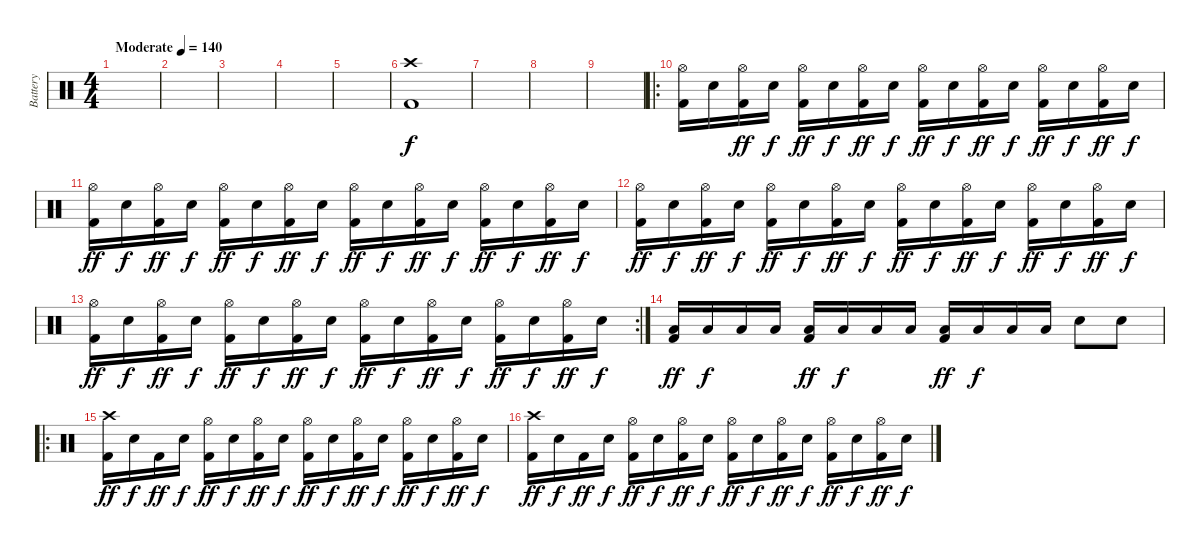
\track ("Battery" "Battery") {instrument percussion}
\staff {score}
\articulation defaults
\ts (4 4)
\tempo (140 "Moderate")
\clef neutral
\ks c
|
|
|
|
|
("Crash high (hit)" "Kick (hit) 2").1 |
|
|
|
\ro
("Hi-Hat (open)" "Kick (hit) 2").16 "Snare (hit) 2".16{dy f} ("Hi-Hat (open)" "Kick (hit) 2").16{dy ff} "Snare (hit) 2".16{dy f} ("Hi-Hat (open)" "Kick (hit) 2").16{dy ff} "Snare (hit) 2".16{dy f} ("Hi-Hat (open)" "Kick (hit) 2").16{dy ff} "Snare (hit) 2".16{dy f} ("Hi-Hat (open)" "Kick (hit) 2").16{dy ff} "Snare (hit) 2".16{dy f} ("Hi-Hat (open)" "Kick (hit) 2").16{dy ff} "Snare (hit) 2".16{dy f} ("Hi-Hat (open)" "Kick (hit) 2").16{dy ff} "Snare (hit) 2".16{dy f} ("Hi-Hat (open)" "Kick (hit) 2").16{dy ff} "Snare (hit) 2".16{dy f} |
("Hi-Hat (open)" "Kick (hit) 2").16{dy ff} "Snare (hit) 2".16{dy f} ("Hi-Hat (open)" "Kick (hit) 2").16{dy ff} "Snare (hit) 2".16{dy f} ("Hi-Hat (open)" "Kick (hit) 2").16{dy ff} "Snare (hit) 2".16{dy f} ("Hi-Hat (open)" "Kick (hit) 2").16{dy ff} "Snare (hit) 2".16{dy f} ("Hi-Hat (open)" "Kick (hit) 2").16{dy ff} "Snare (hit) 2".16{dy f} ("Hi-Hat (open)" "Kick (hit) 2").16{dy ff} "Snare (hit) 2".16{dy f} ("Hi-Hat (open)" "Kick (hit) 2").16{dy ff} "Snare (hit) 2".16{dy f} ("Hi-Hat (open)" "Kick (hit) 2").16{dy ff} "Snare (hit) 2".16{dy f} |
("Hi-Hat (open)" "Kick (hit) 2").16{dy ff} "Snare (hit) 2".16{dy f} ("Hi-Hat (open)" "Kick (hit) 2").16{dy ff} "Snare (hit) 2".16{dy f} ("Hi-Hat (open)" "Kick (hit) 2").16{dy ff} "Snare (hit) 2".16{dy f} ("Hi-Hat (open)" "Kick (hit) 2").16{dy ff} "Snare (hit) 2".16{dy f} ("Hi-Hat (open)" "Kick (hit) 2").16{dy ff} "Snare (hit) 2".16{dy f} ("Hi-Hat (open)" "Kick (hit) 2").16{dy ff} "Snare (hit) 2".16{dy f} ("Hi-Hat (open)" "Kick (hit) 2").16{dy ff} "Snare (hit) 2".16{dy f} ("Hi-Hat (open)" "Kick (hit) 2").16{dy ff} "Snare (hit) 2".16{dy f} |
\rc 2
("Hi-Hat (open)" "Kick (hit) 2").16{dy ff} "Snare (hit) 2".16{dy f} ("Hi-Hat (open)" "Kick (hit) 2").16{dy ff} "Snare (hit) 2".16{dy f} ("Hi-Hat (open)" "Kick (hit) 2").16{dy ff} "Snare (hit) 2".16{dy f} ("Hi-Hat (open)" "Kick (hit) 2").16{dy ff} "Snare (hit) 2".16{dy f} ("Hi-Hat (open)" "Kick (hit) 2").16{dy ff} "Snare (hit) 2".16{dy f} ("Hi-Hat (open)" "Kick (hit) 2").16{dy ff} "Snare (hit) 2".16{dy f} ("Hi-Hat (open)" "Kick (hit) 2").16{dy ff} "Snare (hit) 2".16{dy f} ("Hi-Hat (open)" "Kick (hit) 2").16{dy ff} "Snare (hit) 2".16{dy f} |
("Low Tom (hit)" "Kick (hit) 2").16{dy ff} "Low Tom (hit)".16{dy f} "Low Tom (hit)".16 "Low Tom (hit)".16 ("Low Tom (hit)" "Kick (hit) 2").16{dy ff} "Low Tom (hit)".16{dy f} "Low Tom (hit)".16 "Low Tom (hit)".16 ("Low Tom (hit)" "Kick (hit) 2").16{dy ff} "Low Tom (hit)".16{dy f} "Low Tom (hit)".16 "Low Tom (hit)".16 "Snare (hit) 2".8 "Snare (hit) 2".8 |
\ro
("Crash high (hit)" "Kick (hit) 2").16{dy ff} "Snare (hit) 2".16{dy f} "Kick (hit) 2".16{dy ff} "Snare (hit) 2".16{dy f} ("Hi-Hat (open)" "Kick (hit) 2").16{dy ff} "Snare (hit) 2".16{dy f} ("Hi-Hat (open)" "Kick (hit) 2").16{dy ff} "Snare (hit) 2".16{dy f} ("Hi-Hat (open)" "Kick (hit) 2").16{dy ff} "Snare (hit) 2".16{dy f} ("Hi-Hat (open)" "Kick (hit) 2").16{dy ff} "Snare (hit) 2".16{dy f} ("Hi-Hat (open)" "Kick (hit) 2").16{dy ff} "Snare (hit) 2".16{dy f} ("Hi-Hat (open)" "Kick (hit) 2").16{dy ff} "Snare (hit) 2".16{dy f} |
("Crash high (hit)" "Kick (hit) 2").16{dy ff} "Snare (hit) 2".16{dy f} "Kick (hit) 2".16{dy ff} "Snare (hit) 2".16{dy f} ("Hi-Hat (open)" "Kick (hit) 2").16{dy ff} "Snare (hit) 2".16{dy f} ("Hi-Hat (open)" "Kick (hit) 2").16{dy ff} "Snare (hit) 2".16{dy f} ("Hi-Hat (open)" "Kick (hit) 2").16{dy ff} "Snare (hit) 2".16{dy f} ("Hi-Hat (open)" "Kick (hit) 2").16{dy ff} "Snare (hit) 2".16{dy f} ("Hi-Hat (open)" "Kick (hit) 2").16{dy ff} "Snare (hit) 2".16{dy f} ("Hi-Hat (open)" "Kick (hit) 2").16{dy ff} "Snare (hit) 2".16{dy f}
